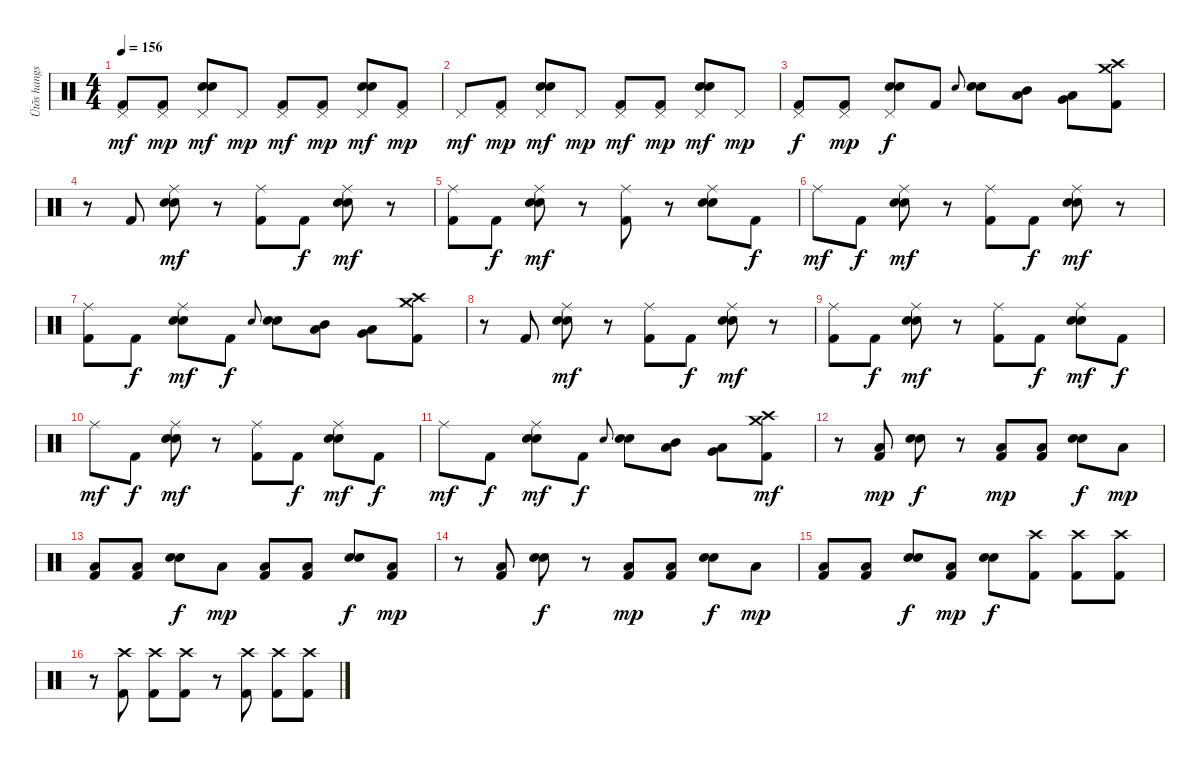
\track ("Ütõs hangszer" "Ütõs hangs") {instrument percussion}
\staff {score}
\articulation defaults
\ts (4 4)
\tempo 156
\clef neutral
\ks c
("Pedal Hi-Hat (hit)" "Kick (hit) 2").8{dy mf} ("Pedal Hi-Hat (hit)" "Kick (hit) 2").8{dy mp} ("Pedal Hi-Hat (hit)" "Snare (hit) 2" "Electric Snare (hit)").8{dy mf} "Pedal Hi-Hat (hit)".8{dy mp} ("Pedal Hi-Hat (hit)" "Kick (hit) 2").8{dy mf} ("Pedal Hi-Hat (hit)" "Kick (hit) 2").8{dy mp} ("Pedal Hi-Hat (hit)" "Snare (hit) 2" "Electric Snare (hit)").8{dy mf} ("Pedal Hi-Hat (hit)" "Kick (hit) 2").8{dy mp} |
"Pedal Hi-Hat (hit)".8{dy mf} ("Pedal Hi-Hat (hit)" "Kick (hit) 2").8{dy mp} ("Pedal Hi-Hat (hit)" "Snare (hit) 2" "Electric Snare (hit)").8{dy mf} "Pedal Hi-Hat (hit)".8{dy mp} ("Pedal Hi-Hat (hit)" "Kick (hit) 2").8{dy mf} ("Pedal Hi-Hat (hit)" "Kick (hit) 2").8{dy mp} ("Pedal Hi-Hat (hit)" "Snare (hit) 2" "Electric Snare (hit)").8{dy mf} "Pedal Hi-Hat (hit)".8{dy mp} |
("Pedal Hi-Hat (hit)" "Kick (hit) 2").8{dy f} ("Pedal Hi-Hat (hit)" "Kick (hit) 2").8{dy mp} ("Pedal Hi-Hat (hit)" "Snare (hit) 2" "Electric Snare (hit)").8{dy f} "Kick (hit) 2".8 "Electric Snare (hit)".8{gr onbeat} ("Snare (hit) 2" "Electric Snare (hit)").8 ("Mid Tom (hit)" "Low Tom (hit)").8 ("Low Tom (hit)" "Very Low Tom (hit)").8 ("Crash high (hit)" "Crash medium (hit)" "Kick (hit) 2").8 |
r.8 "Kick (hit) 2".8 ("Ride (middle)" "Snare (hit) 2" "Electric Snare (hit)").8{dy mf} r.8 ("Ride (middle)" "Kick (hit) 2").8 "Kick (hit) 2".8{dy f} ("Ride (middle)" "Snare (hit) 2" "Electric Snare (hit)").8{dy mf} r.8 |
("Ride (middle)" "Kick (hit) 2").8 "Kick (hit) 2".8{dy f} ("Ride (middle)" "Snare (hit) 2" "Electric Snare (hit)").8{dy mf} r.8 ("Ride (middle)" "Kick (hit) 2").8 r.8 ("Ride (middle)" "Snare (hit) 2" "Electric Snare (hit)").8 "Kick (hit) 2".8{dy f} |
"Ride (middle)".8{dy mf} "Kick (hit) 2".8{dy f} ("Ride (middle)" "Snare (hit) 2" "Electric Snare (hit)").8{dy mf} r.8 ("Ride (middle)" "Kick (hit) 2").8 "Kick (hit) 2".8{dy f} ("Ride (middle)" "Snare (hit) 2" "Electric Snare (hit)").8{dy mf} r.8 |
("Ride (middle)" "Kick (hit) 2").8 "Kick (hit) 2".8{dy f} ("Ride (middle)" "Snare (hit) 2" "Electric Snare (hit)").8{dy mf} "Kick (hit) 2".8{dy f} "Electric Snare (hit)".8{gr onbeat} ("Snare (hit) 2" "Electric Snare (hit)").8 ("Mid Tom (hit)" "Low Tom (hit)").8 ("Low Tom (hit)" "Very Low Tom (hit)").8 ("Crash high (hit)" "Crash medium (hit)" "Kick (hit) 2").8 |
r.8 "Kick (hit) 2".8 ("Ride (middle)" "Snare (hit) 2" "Electric Snare (hit)").8{dy mf} r.8 ("Ride (middle)" "Kick (hit) 2").8 "Kick (hit) 2".8{dy f} ("Ride (middle)" "Snare (hit) 2" "Electric Snare (hit)").8{dy mf} r.8 |
("Ride (middle)" "Kick (hit) 2").8 "Kick (hit) 2".8{dy f} ("Ride (middle)" "Snare (hit) 2" "Electric Snare (hit)").8{dy mf} r.8 ("Ride (middle)" "Kick (hit) 2").8 "Kick (hit) 2".8{dy f} ("Ride (middle)" "Snare (hit) 2" "Electric Snare (hit)").8{dy mf} "Kick (hit) 2".8{dy f} |
"Ride (middle)".8{dy mf} "Kick (hit) 2".8{dy f} ("Ride (middle)" "Snare (hit) 2" "Electric Snare (hit)").8{dy mf} r.8 ("Ride (middle)" "Kick (hit) 2").8 "Kick (hit) 2".8{dy f} ("Ride (middle)" "Snare (hit) 2" "Electric Snare (hit)").8{dy mf} "Kick (hit) 2".8{dy f} |
"Ride (middle)".8{dy mf} "Kick (hit) 2".8{dy f} ("Ride (middle)" "Snare (hit) 2" "Electric Snare (hit)").8{dy mf} "Kick (hit) 2".8{dy f} "Electric Snare (hit)".8{gr onbeat} ("Snare (hit) 2" "Electric Snare (hit)").8 ("Mid Tom (hit)" "Low Tom (hit)").8 ("Low Tom (hit)" "Very Low Tom (hit)").8 ("Crash high (hit)" "Crash medium (hit)" "Kick (hit) 2").8{dy mf} |
r.8 ("Low Floor Tom (hit)" "Kick (hit) 2").8{dy mp} ("Snare (hit) 2" "Electric Snare (hit)").8{dy f} r.8 ("Low Floor Tom (hit)" "Kick (hit) 2").8{dy mp} ("Low Floor Tom (hit)" "Kick (hit) 2").8 ("Snare (hit) 2" "Electric Snare (hit)").8{dy f} "Low Floor Tom (hit)".8{dy mp} |
("Low Floor Tom (hit)" "Kick (hit) 2").8 ("Low Floor Tom (hit)" "Kick (hit) 2").8 ("Snare (hit) 2" "Electric Snare (hit)").8{dy f} "Low Floor Tom (hit)".8{dy mp} ("Low Floor Tom (hit)" "Kick (hit) 2").8 ("Low Floor Tom (hit)" "Kick (hit) 2").8 ("Snare (hit) 2" "Electric Snare (hit)").8{dy f} ("Low Floor Tom (hit)" "Kick (hit) 2").8{dy mp} |
r.8 ("Low Floor Tom (hit)" "Kick (hit) 2").8 ("Snare (hit) 2" "Electric Snare (hit)").8{dy f} r.8 ("Low Floor Tom (hit)" "Kick (hit) 2").8{dy mp} ("Low Floor Tom (hit)" "Kick (hit) 2").8 ("Snare (hit) 2" "Electric Snare (hit)").8{dy f} "Low Floor Tom (hit)".8{dy mp} |
("Low Floor Tom (hit)" "Kick (hit) 2").8 ("Low Floor Tom (hit)" "Kick (hit) 2").8 ("Snare (hit) 2" "Electric Snare (hit)").8{dy f} ("Low Floor Tom (hit)" "Kick (hit) 2").8{dy mp} ("Snare (hit) 2" "Electric Snare (hit)").8{dy f} ("Crash high (hit)" "Kick (hit) 2").8 ("Crash high (hit)" "Kick (hit) 2").8 ("Crash high (hit)" "Kick (hit) 2").8 |
r.8{volume 0} ("Crash high (hit)" "Kick (hit) 2").8{volume 11} ("Crash high (hit)" "Kick (hit) 2").8 ("Crash high (hit)" "Kick (hit) 2").8 r.8{volume 0} ("Crash high (hit)" "Kick (hit) 2").8{volume 11} ("Crash high (hit)" "Kick (hit) 2").8 ("Crash high (hit)" "Kick (hit) 2").8
